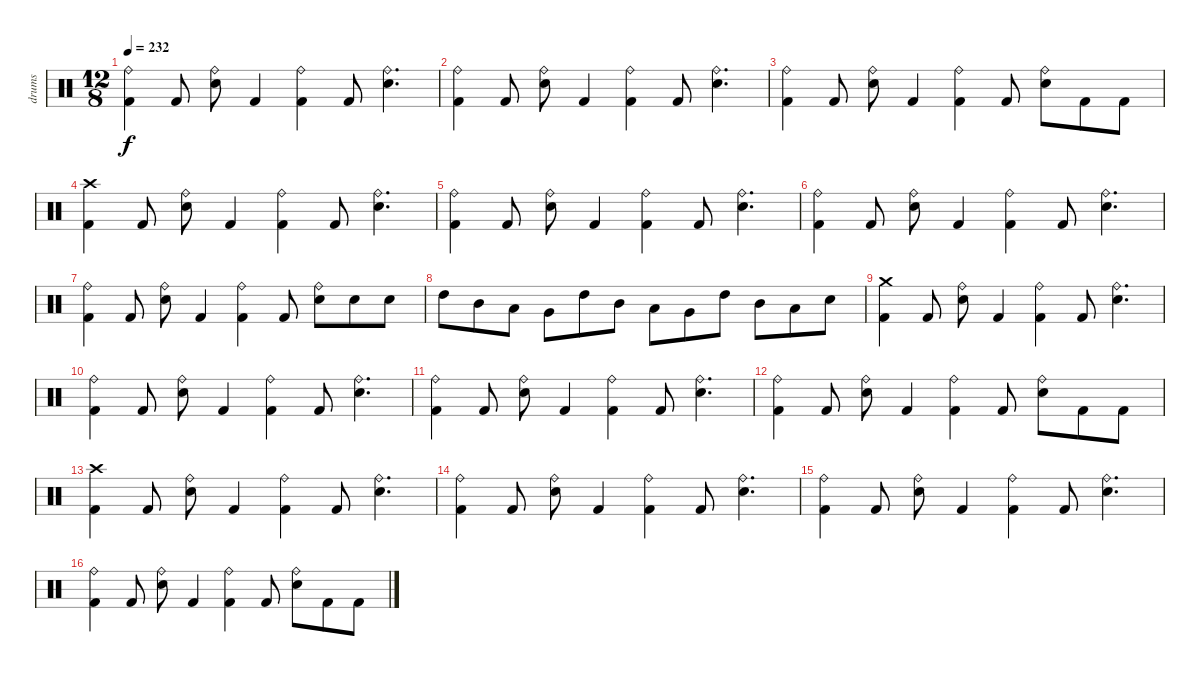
\track ("drums" "drums") {instrument percussion}
\staff {score}
\articulation defaults
\ts (12 8)
\tempo 232
\clef neutral
\ks c
("Ride (bell)" "Kick (hit) 2").4{dy f} "Kick (hit) 2".8 ("Ride (bell)" "Electric Snare (hit)").8 "Kick (hit) 2".4 ("Ride (bell)" "Kick (hit) 2").4 "Kick (hit) 2".8 ("Ride (bell)" "Electric Snare (hit)").4{d} |
("Kick (hit) 2" "Ride (bell)").4 "Kick (hit) 2".8 ("Ride (bell)" "Electric Snare (hit)").8 "Kick (hit) 2".4 ("Kick (hit) 2" "Ride (bell)").4 "Kick (hit) 2".8 ("Ride (bell)" "Electric Snare (hit)").4{d} |
("Kick (hit) 2" "Ride (bell)").4 "Kick (hit) 2".8 ("Ride (bell)" "Electric Snare (hit)").8 "Kick (hit) 2".4 ("Ride (bell)" "Kick (hit) 2").4 "Kick (hit) 2".8 ("Ride (bell)" "Electric Snare (hit)").8 "Kick (hit) 2".8 "Kick (hit) 2".8 |
("Crash high (hit)" "Kick (hit) 2").4 "Kick (hit) 2".8 ("Ride (bell)" "Electric Snare (hit)").8 "Kick (hit) 2".4 ("Ride (bell)" "Kick (hit) 2").4 "Kick (hit) 2".8 ("Ride (bell)" "Electric Snare (hit)").4{d} |
("Ride (bell)" "Kick (hit) 2").4 "Kick (hit) 2".8 ("Ride (bell)" "Electric Snare (hit)").8 "Kick (hit) 2".4 ("Ride (bell)" "Kick (hit) 2").4 "Kick (hit) 2".8 ("Ride (bell)" "Electric Snare (hit)").4{d} |
("Kick (hit) 2" "Ride (bell)").4 "Kick (hit) 2".8 ("Ride (bell)" "Electric Snare (hit)").8 "Kick (hit) 2".4 ("Kick (hit) 2" "Ride (bell)").4 "Kick (hit) 2".8 ("Ride (bell)" "Electric Snare (hit)").4{d} |
("Kick (hit) 2" "Ride (bell)").4 "Kick (hit) 2".8 ("Ride (bell)" "Electric Snare (hit)").8 "Kick (hit) 2".4 ("Ride (bell)" "Kick (hit) 2").4 "Kick (hit) 2".8 ("Ride (bell)" "Electric Snare (hit)").8 "Electric Snare (hit)".8 "Electric Snare (hit)".8 |
"High Tom (hit)".8 "Mid Tom (hit)".8 "Low Tom (hit)".8 "Very Low Tom (hit)".8 "High Tom (hit)".8 "Mid Tom (hit)".8 "Low Tom (hit)".8 "Very Low Tom (hit)".8 "High Tom (hit)".8 "Mid Tom (hit)".8 "Low Tom (hit)".8 "Electric Snare (hit)".8 |
("Crash medium (hit)" "Kick (hit) 2").4 "Kick (hit) 2".8 ("Ride (bell)" "Electric Snare (hit)").8 "Kick (hit) 2".4 ("Ride (bell)" "Kick (hit) 2").4 "Kick (hit) 2".8 ("Ride (bell)" "Electric Snare (hit)").4{d} |
("Ride (bell)" "Kick (hit) 2").4 "Kick (hit) 2".8 ("Ride (bell)" "Electric Snare (hit)").8 "Kick (hit) 2".4 ("Ride (bell)" "Kick (hit) 2").4 "Kick (hit) 2".8 ("Ride (bell)" "Electric Snare (hit)").4{d} |
("Kick (hit) 2" "Ride (bell)").4 "Kick (hit) 2".8 ("Ride (bell)" "Electric Snare (hit)").8 "Kick (hit) 2".4 ("Kick (hit) 2" "Ride (bell)").4 "Kick (hit) 2".8 ("Ride (bell)" "Electric Snare (hit)").4{d} |
("Kick (hit) 2" "Ride (bell)").4 "Kick (hit) 2".8 ("Ride (bell)" "Electric Snare (hit)").8 "Kick (hit) 2".4 ("Ride (bell)" "Kick (hit) 2").4 "Kick (hit) 2".8 ("Ride (bell)" "Electric Snare (hit)").8 "Kick (hit) 2".8 "Kick (hit) 2".8 |
("Crash high (hit)" "Kick (hit) 2").4 "Kick (hit) 2".8 ("Ride (bell)" "Electric Snare (hit)").8 "Kick (hit) 2".4 ("Ride (bell)" "Kick (hit) 2").4 "Kick (hit) 2".8 ("Ride (bell)" "Electric Snare (hit)").4{d} |
("Ride (bell)" "Kick (hit) 2").4 "Kick (hit) 2".8 ("Ride (bell)" "Electric Snare (hit)").8 "Kick (hit) 2".4 ("Ride (bell)" "Kick (hit) 2").4 "Kick (hit) 2".8 ("Ride (bell)" "Electric Snare (hit)").4{d} |
("Kick (hit) 2" "Ride (bell)").4 "Kick (hit) 2".8 ("Ride (bell)" "Electric Snare (hit)").8 "Kick (hit) 2".4 ("Kick (hit) 2" "Ride (bell)").4 "Kick (hit) 2".8 ("Ride (bell)" "Electric Snare (hit)").4{d} |
("Kick (hit) 2" "Ride (bell)").4 "Kick (hit) 2".8 ("Ride (bell)" "Electric Snare (hit)").8 "Kick (hit) 2".4 ("Ride (bell)" "Kick (hit) 2").4 "Kick (hit) 2".8 ("Ride (bell)" "Electric Snare (hit)").8 "Kick (hit) 2".8 "Kick (hit) 2".8
